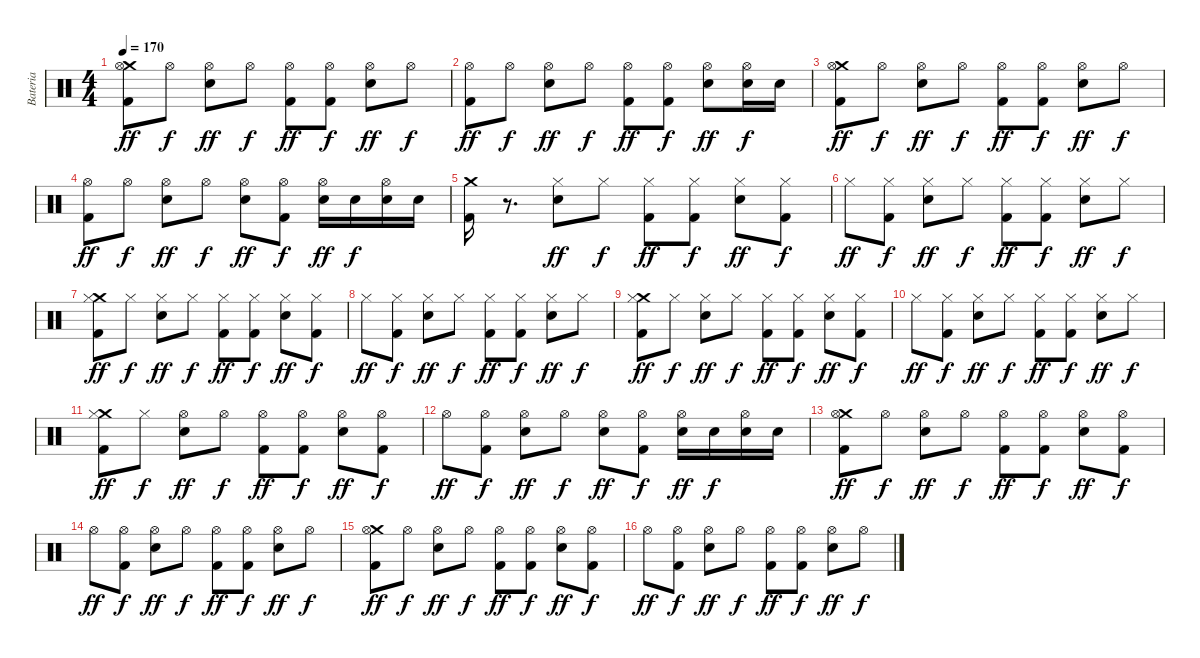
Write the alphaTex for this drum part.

\track ("Bateria" "Bateria") {instrument percussion}
\staff {score}
\articulation defaults
\ts (4 4)
\tempo 170
\clef neutral
\ks c
("Crash medium (hit)" "Hi-Hat (open)" "Kick (hit) 2").8{dy ff} "Hi-Hat (open)".8{dy f} ("Hi-Hat (open)" "Electric Snare (hit)").8{dy ff} "Hi-Hat (open)".8{dy f} ("Hi-Hat (open)" "Kick (hit) 2").8{dy ff} ("Hi-Hat (open)" "Kick (hit) 2").8{dy f} ("Hi-Hat (open)" "Electric Snare (hit)").8{dy ff} "Hi-Hat (open)".8{dy f} |
("Hi-Hat (open)" "Kick (hit) 2").8{dy ff} "Hi-Hat (open)".8{dy f} ("Hi-Hat (open)" "Electric Snare (hit)").8{dy ff} "Hi-Hat (open)".8{dy f} ("Hi-Hat (open)" "Kick (hit) 2").8{dy ff} ("Hi-Hat (open)" "Kick (hit) 2").8{dy f} ("Hi-Hat (open)" "Electric Snare (hit)").8{dy ff} ("Hi-Hat (open)" "Electric Snare (hit)").16{dy f} "Electric Snare (hit)".16 |
("Crash medium (hit)" "Hi-Hat (open)" "Kick (hit) 2").8{dy ff} "Hi-Hat (open)".8{dy f} ("Hi-Hat (open)" "Electric Snare (hit)").8{dy ff} "Hi-Hat (open)".8{dy f} ("Hi-Hat (open)" "Kick (hit) 2").8{dy ff} ("Hi-Hat (open)" "Kick (hit) 2").8{dy f} ("Hi-Hat (open)" "Electric Snare (hit)").8{dy ff} "Hi-Hat (open)".8{dy f} |
("Hi-Hat (open)" "Kick (hit) 2").8{dy ff} "Hi-Hat (open)".8{dy f} ("Hi-Hat (open)" "Electric Snare (hit)").8{dy ff} "Hi-Hat (open)".8{dy f} ("Hi-Hat (open)" "Electric Snare (hit)").8{dy ff} ("Hi-Hat (open)" "Kick (hit) 2").8{dy f} ("Hi-Hat (open)" "Electric Snare (hit)").16{dy ff} "Electric Snare (hit)".16{dy f} ("Hi-Hat (open)" "Electric Snare (hit)").16 "Electric Snare (hit)".16 |
("Crash medium (hit)" "Kick (hit) 2").16 r.8{d} ("Hi-Hat (closed)" "Electric Snare (hit)").8{dy ff} "Hi-Hat (closed)".8{dy f} ("Hi-Hat (closed)" "Kick (hit) 2").8{dy ff} ("Hi-Hat (closed)" "Kick (hit) 2").8{dy f} ("Hi-Hat (closed)" "Electric Snare (hit)").8{dy ff} ("Hi-Hat (closed)" "Kick (hit) 2").8{dy f} |
"Hi-Hat (closed)".8{dy ff} ("Hi-Hat (closed)" "Kick (hit) 2").8{dy f} ("Hi-Hat (closed)" "Electric Snare (hit)").8{dy ff} "Hi-Hat (closed)".8{dy f} ("Hi-Hat (closed)" "Kick (hit) 2").8{dy ff} ("Hi-Hat (closed)" "Kick (hit) 2").8{dy f} ("Hi-Hat (closed)" "Electric Snare (hit)").8{dy ff} "Hi-Hat (closed)".8{dy f} |
("Crash medium (hit)" "Hi-Hat (closed)" "Kick (hit) 2").8{dy ff} "Hi-Hat (closed)".8{dy f} ("Hi-Hat (closed)" "Electric Snare (hit)").8{dy ff} "Hi-Hat (closed)".8{dy f} ("Hi-Hat (closed)" "Kick (hit) 2").8{dy ff} ("Hi-Hat (closed)" "Kick (hit) 2").8{dy f} ("Hi-Hat (closed)" "Electric Snare (hit)").8{dy ff} ("Hi-Hat (closed)" "Kick (hit) 2").8{dy f} |
"Hi-Hat (closed)".8{dy ff} ("Hi-Hat (closed)" "Kick (hit) 2").8{dy f} ("Hi-Hat (closed)" "Electric Snare (hit)").8{dy ff} "Hi-Hat (closed)".8{dy f} ("Hi-Hat (closed)" "Kick (hit) 2").8{dy ff} ("Hi-Hat (closed)" "Kick (hit) 2").8{dy f} ("Hi-Hat (closed)" "Electric Snare (hit)").8{dy ff} "Hi-Hat (closed)".8{dy f} |
("Crash medium (hit)" "Hi-Hat (closed)" "Kick (hit) 2").8{dy ff} "Hi-Hat (closed)".8{dy f} ("Hi-Hat (closed)" "Electric Snare (hit)").8{dy ff} "Hi-Hat (closed)".8{dy f} ("Hi-Hat (closed)" "Kick (hit) 2").8{dy ff} ("Hi-Hat (closed)" "Kick (hit) 2").8{dy f} ("Hi-Hat (closed)" "Electric Snare (hit)").8{dy ff} ("Hi-Hat (closed)" "Kick (hit) 2").8{dy f} |
"Hi-Hat (closed)".8{dy ff} ("Hi-Hat (closed)" "Kick (hit) 2").8{dy f} ("Hi-Hat (closed)" "Electric Snare (hit)").8{dy ff} "Hi-Hat (closed)".8{dy f} ("Hi-Hat (closed)" "Kick (hit) 2").8{dy ff} ("Hi-Hat (closed)" "Kick (hit) 2").8{dy f} ("Hi-Hat (closed)" "Electric Snare (hit)").8{dy ff} "Hi-Hat (closed)".8{dy f} |
("Crash medium (hit)" "Hi-Hat (closed)" "Kick (hit) 2").8{dy ff} "Hi-Hat (closed)".8{dy f} ("Hi-Hat (open)" "Electric Snare (hit)").8{dy ff} "Hi-Hat (open)".8{dy f} ("Hi-Hat (open)" "Kick (hit) 2").8{dy ff} ("Hi-Hat (open)" "Kick (hit) 2").8{dy f} ("Hi-Hat (open)" "Electric Snare (hit)").8{dy ff} ("Hi-Hat (open)" "Kick (hit) 2").8{dy f} |
"Hi-Hat (open)".8{dy ff} ("Hi-Hat (open)" "Kick (hit) 2").8{dy f} ("Hi-Hat (open)" "Electric Snare (hit)").8{dy ff} "Hi-Hat (open)".8{dy f} ("Hi-Hat (open)" "Electric Snare (hit)").8{dy ff} ("Hi-Hat (open)" "Kick (hit) 2").8{dy f} ("Hi-Hat (open)" "Electric Snare (hit)").16{dy ff} "Electric Snare (hit)".16{dy f} ("Hi-Hat (open)" "Electric Snare (hit)").16 "Electric Snare (hit)".16 |
("Crash medium (hit)" "Hi-Hat (open)" "Kick (hit) 2").8{dy ff} "Hi-Hat (open)".8{dy f} ("Hi-Hat (open)" "Electric Snare (hit)").8{dy ff} "Hi-Hat (open)".8{dy f} ("Hi-Hat (open)" "Kick (hit) 2").8{dy ff} ("Hi-Hat (open)" "Kick (hit) 2").8{dy f} ("Hi-Hat (open)" "Electric Snare (hit)").8{dy ff} ("Hi-Hat (open)" "Kick (hit) 2").8{dy f} |
"Hi-Hat (open)".8{dy ff} ("Hi-Hat (open)" "Kick (hit) 2").8{dy f} ("Hi-Hat (open)" "Electric Snare (hit)").8{dy ff} "Hi-Hat (open)".8{dy f} ("Hi-Hat (open)" "Kick (hit) 2").8{dy ff} ("Hi-Hat (open)" "Kick (hit) 2").8{dy f} ("Hi-Hat (open)" "Electric Snare (hit)").8{dy ff} "Hi-Hat (open)".8{dy f} |
("Crash medium (hit)" "Hi-Hat (open)" "Kick (hit) 2").8{dy ff} "Hi-Hat (open)".8{dy f} ("Hi-Hat (open)" "Electric Snare (hit)").8{dy ff} "Hi-Hat (open)".8{dy f} ("Hi-Hat (open)" "Kick (hit) 2").8{dy ff} ("Hi-Hat (open)" "Kick (hit) 2").8{dy f} ("Hi-Hat (open)" "Electric Snare (hit)").8{dy ff} ("Hi-Hat (open)" "Kick (hit) 2").8{dy f} |
"Hi-Hat (open)".8{dy ff} ("Hi-Hat (open)" "Kick (hit) 2").8{dy f} ("Hi-Hat (open)" "Electric Snare (hit)").8{dy ff} "Hi-Hat (open)".8{dy f} ("Hi-Hat (open)" "Kick (hit) 2").8{dy ff} ("Hi-Hat (open)" "Kick (hit) 2").8{dy f} ("Hi-Hat (open)" "Electric Snare (hit)").8{dy ff} "Hi-Hat (open)".8{dy f}
